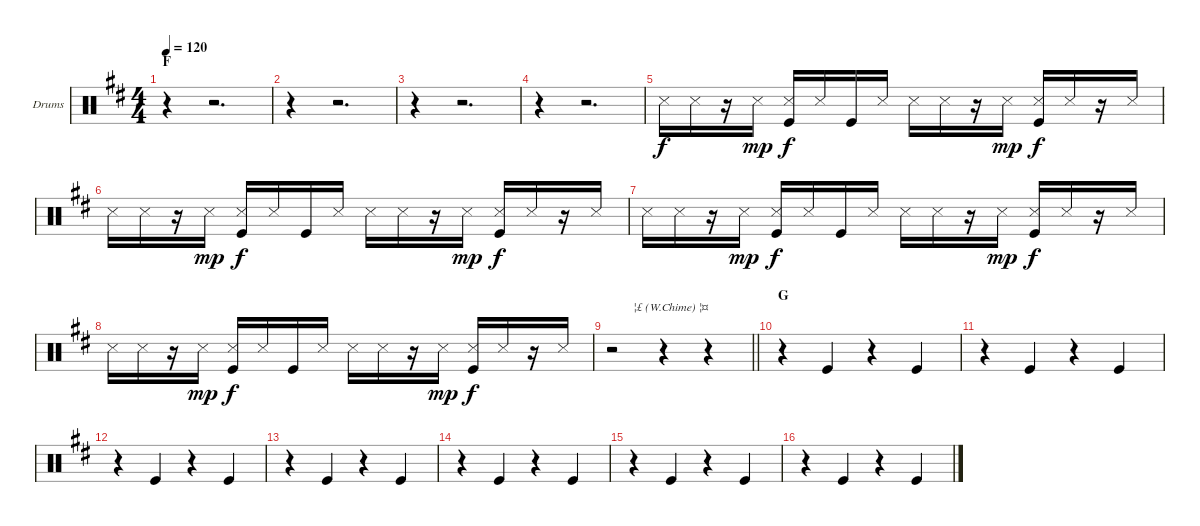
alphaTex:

\bracketExtendMode groupsimilarinstruments
\firstSystemTrackNameOrientation horizontal
\otherSystemsTrackNameOrientation horizontal
\track ("Drumkit" "Drums") {instrument percussion}
\staff {score}
\articulation defaults
\ts (4 4)
\section ("" "F")
\tempo 120
\clef neutral
\ks d
r.4{dy f} r.2{d} |
r.4 r.2{d} |
r.4 r.2{d} |
r.4 r.2{d} |
"Snare (side stick) 3".16 "Snare (side stick) 3".16 r.16 "Snare (side stick) 3".16{dy mp} ("Snare (side stick) 3" "Kick (hit)").16{dy f} "Snare (side stick) 3".16 "Kick (hit)".16 "Snare (side stick) 3".16 "Snare (side stick) 3".16 "Snare (side stick) 3".16 r.16 "Snare (side stick) 3".16{dy mp} ("Snare (side stick) 3" "Kick (hit)").16{dy f} "Snare (side stick) 3".16 r.16 "Snare (side stick) 3".16 |
"Snare (side stick) 3".16 "Snare (side stick) 3".16 r.16 "Snare (side stick) 3".16{dy mp} ("Snare (side stick) 3" "Kick (hit)").16{dy f} "Snare (side stick) 3".16 "Kick (hit)".16 "Snare (side stick) 3".16 "Snare (side stick) 3".16 "Snare (side stick) 3".16 r.16 "Snare (side stick) 3".16{dy mp} ("Snare (side stick) 3" "Kick (hit)").16{dy f} "Snare (side stick) 3".16 r.16 "Snare (side stick) 3".16 |
"Snare (side stick) 3".16 "Snare (side stick) 3".16 r.16 "Snare (side stick) 3".16{dy mp} ("Snare (side stick) 3" "Kick (hit)").16{dy f} "Snare (side stick) 3".16 "Kick (hit)".16 "Snare (side stick) 3".16 "Snare (side stick) 3".16 "Snare (side stick) 3".16 r.16 "Snare (side stick) 3".16{dy mp} ("Snare (side stick) 3" "Kick (hit)").16{dy f} "Snare (side stick) 3".16 r.16 "Snare (side stick) 3".16 |
"Snare (side stick) 3".16 "Snare (side stick) 3".16 r.16 "Snare (side stick) 3".16{dy mp} ("Snare (side stick) 3" "Kick (hit)").16{dy f} "Snare (side stick) 3".16 "Kick (hit)".16 "Snare (side stick) 3".16 "Snare (side stick) 3".16 "Snare (side stick) 3".16 r.16 "Snare (side stick) 3".16{dy mp} ("Snare (side stick) 3" "Kick (hit)").16{dy f} "Snare (side stick) 3".16 r.16 "Snare (side stick) 3".16 |
\barLineRight lightlight
r.2{txt "       ¦£ (W.Chime) ¦¤"} r.4 r.4 |
\section ("" "G")
r.4 "Kick (hit)".4 r.4 "Kick (hit)".4 |
r.4 "Kick (hit)".4 r.4 "Kick (hit)".4 |
r.4 "Kick (hit)".4 r.4 "Kick (hit)".4 |
r.4 "Kick (hit)".4 r.4 "Kick (hit)".4 |
r.4 "Kick (hit)".4 r.4 "Kick (hit)".4 |
r.4 "Kick (hit)".4 r.4 "Kick (hit)".4 |
r.4 "Kick (hit)".4 r.4 "Kick (hit)".4
